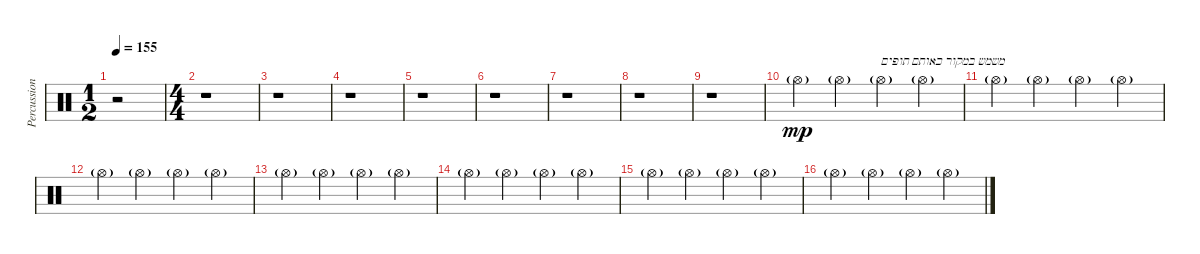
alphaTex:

\track ("Percussion" "Percussion") {instrument percussion}
\staff {score}
\articulation defaults
\ts (1 2)
\tempo 155
\clef neutral
\ks c
r.2{dy mp} |
\ts (4 4)
r.1 |
r.1 |
r.1 |
r.1 |
r.1 |
r.1 |
r.1 |
r.1 |
"Hi-Hat (open)"{g}.4 "Hi-Hat (open)"{g}.4 "Hi-Hat (open)"{g}.4{txt "משמש במקור כאותם תופים"} "Hi-Hat (open)"{g}.4 |
"Hi-Hat (open)"{g}.4 "Hi-Hat (open)"{g}.4 "Hi-Hat (open)"{g}.4 "Hi-Hat (open)"{g}.4 |
"Hi-Hat (open)"{g}.4 "Hi-Hat (open)"{g}.4 "Hi-Hat (open)"{g}.4 "Hi-Hat (open)"{g}.4 |
"Hi-Hat (open)"{g}.4 "Hi-Hat (open)"{g}.4 "Hi-Hat (open)"{g}.4 "Hi-Hat (open)"{g}.4 |
"Hi-Hat (open)"{g}.4 "Hi-Hat (open)"{g}.4 "Hi-Hat (open)"{g}.4 "Hi-Hat (open)"{g}.4 |
"Hi-Hat (open)"{g}.4 "Hi-Hat (open)"{g}.4 "Hi-Hat (open)"{g}.4 "Hi-Hat (open)"{g}.4 |
"Hi-Hat (open)"{g}.4 "Hi-Hat (open)"{g}.4 "Hi-Hat (open)"{g}.4 "Hi-Hat (open)"{g}.4
